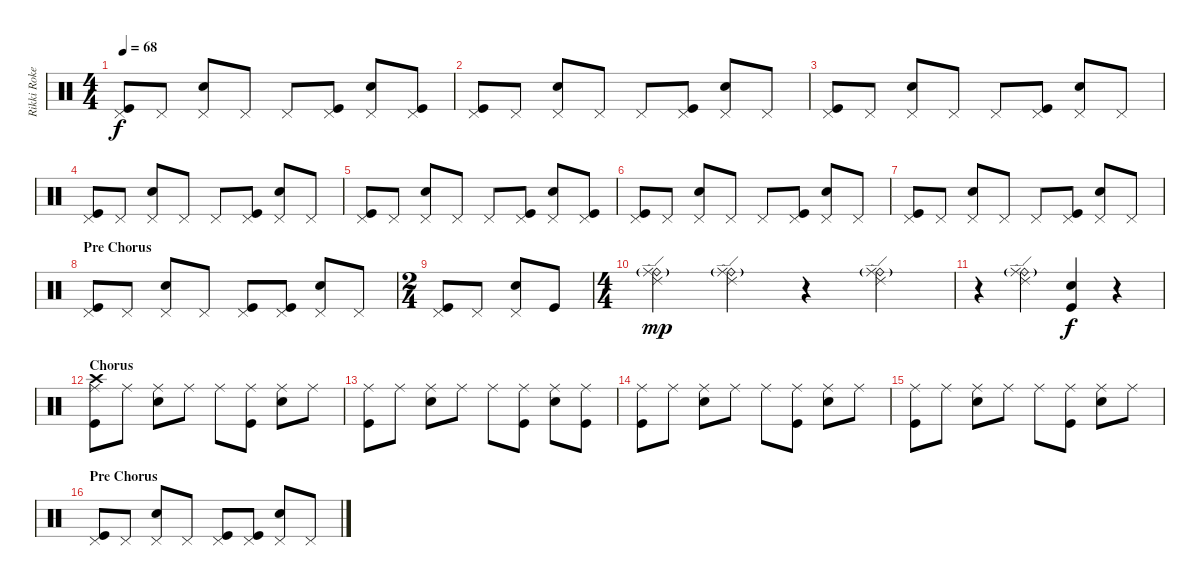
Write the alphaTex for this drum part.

\track ("Rikki Rokett" "Rikki Roke") {instrument percussion}
\staff {score}
\articulation defaults
\ts (4 4)
\tempo 68
\clef neutral
\ks c
("Pedal Hi-Hat (hit)" "Kick (hit)").8{dy f} "Pedal Hi-Hat (hit)".8 ("Pedal Hi-Hat (hit)" "Snare (hit) 2").8 "Pedal Hi-Hat (hit)".8 "Pedal Hi-Hat (hit)".8 ("Pedal Hi-Hat (hit)" "Kick (hit)").8 ("Pedal Hi-Hat (hit)" "Snare (hit) 2").8 ("Pedal Hi-Hat (hit)" "Kick (hit)").8 |
("Pedal Hi-Hat (hit)" "Kick (hit)").8 "Pedal Hi-Hat (hit)".8 ("Pedal Hi-Hat (hit)" "Snare (hit) 2").8 "Pedal Hi-Hat (hit)".8 "Pedal Hi-Hat (hit)".8 ("Pedal Hi-Hat (hit)" "Kick (hit)").8 ("Pedal Hi-Hat (hit)" "Snare (hit) 2").8 "Pedal Hi-Hat (hit)".8 |
("Pedal Hi-Hat (hit)" "Kick (hit)").8 "Pedal Hi-Hat (hit)".8 ("Pedal Hi-Hat (hit)" "Snare (hit) 2").8 "Pedal Hi-Hat (hit)".8 "Pedal Hi-Hat (hit)".8 ("Pedal Hi-Hat (hit)" "Kick (hit)").8 ("Pedal Hi-Hat (hit)" "Snare (hit) 2").8 "Pedal Hi-Hat (hit)".8 |
("Pedal Hi-Hat (hit)" "Kick (hit)").8 "Pedal Hi-Hat (hit)".8 ("Pedal Hi-Hat (hit)" "Snare (hit) 2").8 "Pedal Hi-Hat (hit)".8 "Pedal Hi-Hat (hit)".8 ("Pedal Hi-Hat (hit)" "Kick (hit)").8 ("Pedal Hi-Hat (hit)" "Snare (hit) 2").8 "Pedal Hi-Hat (hit)".8 |
("Pedal Hi-Hat (hit)" "Kick (hit)").8 "Pedal Hi-Hat (hit)".8 ("Pedal Hi-Hat (hit)" "Snare (hit) 2").8 "Pedal Hi-Hat (hit)".8 "Pedal Hi-Hat (hit)".8 ("Pedal Hi-Hat (hit)" "Kick (hit)").8 ("Pedal Hi-Hat (hit)" "Snare (hit) 2").8 ("Pedal Hi-Hat (hit)" "Kick (hit)").8 |
("Pedal Hi-Hat (hit)" "Kick (hit)").8 "Pedal Hi-Hat (hit)".8 ("Pedal Hi-Hat (hit)" "Snare (hit) 2").8 "Pedal Hi-Hat (hit)".8 "Pedal Hi-Hat (hit)".8 ("Pedal Hi-Hat (hit)" "Kick (hit)").8 ("Pedal Hi-Hat (hit)" "Snare (hit) 2").8 "Pedal Hi-Hat (hit)".8 |
("Pedal Hi-Hat (hit)" "Kick (hit)").8 "Pedal Hi-Hat (hit)".8 ("Pedal Hi-Hat (hit)" "Snare (hit) 2").8 "Pedal Hi-Hat (hit)".8 "Pedal Hi-Hat (hit)".8 ("Pedal Hi-Hat (hit)" "Kick (hit)").8 ("Pedal Hi-Hat (hit)" "Snare (hit) 2").8 "Pedal Hi-Hat (hit)".8 |
\section ("" "Pre Chorus")
("Pedal Hi-Hat (hit)" "Kick (hit)").8 "Pedal Hi-Hat (hit)".8 ("Pedal Hi-Hat (hit)" "Snare (hit) 2").8 "Pedal Hi-Hat (hit)".8 ("Pedal Hi-Hat (hit)" "Kick (hit)").8 ("Pedal Hi-Hat (hit)" "Kick (hit)").8 ("Pedal Hi-Hat (hit)" "Snare (hit) 2").8 "Pedal Hi-Hat (hit)".8 |
\ts (2 4)
("Pedal Hi-Hat (hit)" "Kick (hit)").8 "Pedal Hi-Hat (hit)".8 ("Pedal Hi-Hat (hit)" "Snare (hit) 2").8 "Kick (hit)".8 |
\ts (4 4)
("Ride (bell)"{g} "Ride (edge) 2" "Ride (middle)").4{dy mp} ("Ride (bell)"{g} "Ride (edge) 2" "Ride (middle)").4 r.4 ("Ride (bell)"{g} "Ride (edge) 2" "Ride (middle)").4 |
r.4 ("Ride (bell)"{g} "Ride (edge) 2" "Ride (middle)").4 ("Snare (hit) 2" "Kick (hit)").4{dy f} r.4 |
\section ("" "Chorus")
("Ride (middle)" "Crash high (hit)" "Kick (hit)").8 "Ride (middle)".8 ("Ride (middle)" "Snare (hit) 2").8 "Ride (middle)".8 "Ride (middle)".8 ("Ride (middle)" "Kick (hit)").8 ("Ride (middle)" "Snare (hit) 2").8 "Ride (middle)".8 |
("Ride (middle)" "Kick (hit)").8 "Ride (middle)".8 ("Ride (middle)" "Snare (hit) 2").8 "Ride (middle)".8 "Ride (middle)".8 ("Ride (middle)" "Kick (hit)").8 ("Ride (middle)" "Snare (hit) 2").8 ("Ride (middle)" "Kick (hit)").8 |
("Ride (middle)" "Kick (hit)").8 "Ride (middle)".8 ("Ride (middle)" "Snare (hit) 2").8 "Ride (middle)".8 "Ride (middle)".8 ("Ride (middle)" "Kick (hit)").8 ("Ride (middle)" "Snare (hit) 2").8 "Ride (middle)".8 |
("Ride (middle)" "Kick (hit)").8 "Ride (middle)".8 ("Ride (middle)" "Snare (hit) 2").8 "Ride (middle)".8 "Ride (middle)".8 ("Ride (middle)" "Kick (hit)").8 ("Ride (middle)" "Snare (hit) 2").8 "Ride (middle)".8 |
\section ("" "Pre Chorus")
("Pedal Hi-Hat (hit)" "Kick (hit)").8 "Pedal Hi-Hat (hit)".8 ("Pedal Hi-Hat (hit)" "Snare (hit) 2").8 "Pedal Hi-Hat (hit)".8 ("Pedal Hi-Hat (hit)" "Kick (hit)").8 ("Pedal Hi-Hat (hit)" "Kick (hit)").8 ("Pedal Hi-Hat (hit)" "Snare (hit) 2").8 "Pedal Hi-Hat (hit)".8
